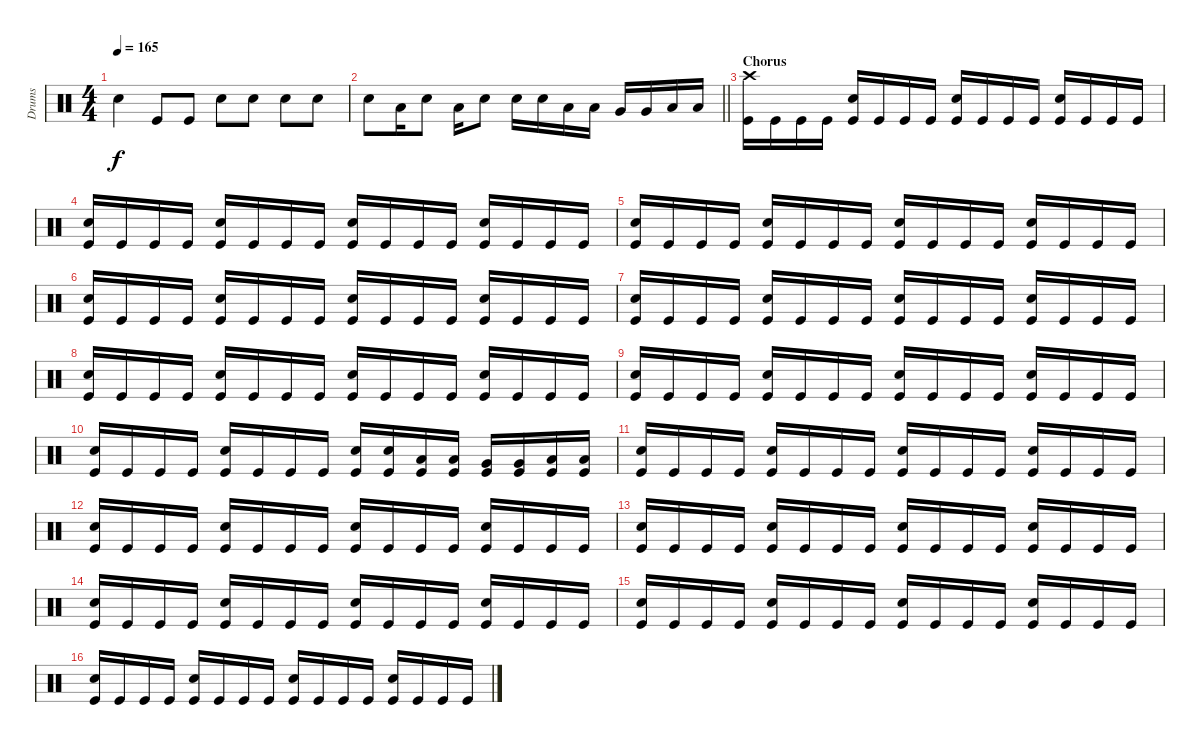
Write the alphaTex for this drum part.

\track ("Drums" "Drums") {instrument percussion}
\staff {score}
\articulation defaults
\ts (4 4)
\tempo 165
\clef neutral
\ks c "Snare (hit) 2".4{dy f} "Kick (hit)".8 "Kick (hit)".8 "Snare (hit) 2".8 "Snare (hit) 2".8 "Snare (hit) 2".8 "Snare (hit) 2".8
|
\barLineRight lightlight "Snare (hit) 2".8 "Low Tom (hit)".16 "Snare (hit) 2".8 "Low Tom (hit)".16 "Snare (hit) 2".8 "Snare (hit) 2".16 "Snare (hit) 2".16 "Low Tom (hit)".16 "Low Tom (hit)".16 "Very Low Tom (hit)".16 "Very Low Tom (hit)".16 "Low Floor Tom (hit)".16 "Low Floor Tom (hit)".16
|
\section ("" "Chorus")
("Kick (hit)" "Crash high (hit)").16 "Kick (hit)".16 "Kick (hit)".16 "Kick (hit)".16 ("Kick (hit)" "Snare (hit) 2").16 "Kick (hit)".16 "Kick (hit)".16 "Kick (hit)".16 ("Kick (hit)" "Snare (hit) 2").16 "Kick (hit)".16 "Kick (hit)".16 "Kick (hit)".16 ("Kick (hit)" "Snare (hit) 2").16 "Kick (hit)".16 "Kick (hit)".16 "Kick (hit)".16 |
("Kick (hit)" "Snare (hit) 2").16 "Kick (hit)".16 "Kick (hit)".16 "Kick (hit)".16 ("Kick (hit)" "Snare (hit) 2").16 "Kick (hit)".16 "Kick (hit)".16 "Kick (hit)".16 ("Kick (hit)" "Snare (hit) 2").16 "Kick (hit)".16 "Kick (hit)".16 "Kick (hit)".16 ("Kick (hit)" "Snare (hit) 2").16 "Kick (hit)".16 "Kick (hit)".16 "Kick (hit)".16 |
("Kick (hit)" "Snare (hit) 2").16 "Kick (hit)".16 "Kick (hit)".16 "Kick (hit)".16 ("Kick (hit)" "Snare (hit) 2").16 "Kick (hit)".16 "Kick (hit)".16 "Kick (hit)".16 ("Kick (hit)" "Snare (hit) 2").16 "Kick (hit)".16 "Kick (hit)".16 "Kick (hit)".16 ("Kick (hit)" "Snare (hit) 2").16 "Kick (hit)".16 "Kick (hit)".16 "Kick (hit)".16 |
("Kick (hit)" "Snare (hit) 2").16 "Kick (hit)".16 "Kick (hit)".16 "Kick (hit)".16 ("Kick (hit)" "Snare (hit) 2").16 "Kick (hit)".16 "Kick (hit)".16 "Kick (hit)".16 ("Kick (hit)" "Snare (hit) 2").16 "Kick (hit)".16 "Kick (hit)".16 "Kick (hit)".16 ("Kick (hit)" "Snare (hit) 2").16 "Kick (hit)".16 "Kick (hit)".16 "Kick (hit)".16 |
("Kick (hit)" "Snare (hit) 2").16 "Kick (hit)".16 "Kick (hit)".16 "Kick (hit)".16 ("Kick (hit)" "Snare (hit) 2").16 "Kick (hit)".16 "Kick (hit)".16 "Kick (hit)".16 ("Kick (hit)" "Snare (hit) 2").16 "Kick (hit)".16 "Kick (hit)".16 "Kick (hit)".16 ("Kick (hit)" "Snare (hit) 2").16 "Kick (hit)".16 "Kick (hit)".16 "Kick (hit)".16 |
("Kick (hit)" "Snare (hit) 2").16 "Kick (hit)".16 "Kick (hit)".16 "Kick (hit)".16 ("Kick (hit)" "Snare (hit) 2").16 "Kick (hit)".16 "Kick (hit)".16 "Kick (hit)".16 ("Kick (hit)" "Snare (hit) 2").16 "Kick (hit)".16 "Kick (hit)".16 "Kick (hit)".16 ("Kick (hit)" "Snare (hit) 2").16 "Kick (hit)".16 "Kick (hit)".16 "Kick (hit)".16 |
("Kick (hit)" "Snare (hit) 2").16 "Kick (hit)".16 "Kick (hit)".16 "Kick (hit)".16 ("Kick (hit)" "Snare (hit) 2").16 "Kick (hit)".16 "Kick (hit)".16 "Kick (hit)".16 ("Kick (hit)" "Snare (hit) 2").16 "Kick (hit)".16 "Kick (hit)".16 "Kick (hit)".16 ("Kick (hit)" "Snare (hit) 2").16 "Kick (hit)".16 "Kick (hit)".16 "Kick (hit)".16 |
("Kick (hit)" "Snare (hit) 2").16 "Kick (hit)".16 "Kick (hit)".16 "Kick (hit)".16 ("Kick (hit)" "Snare (hit) 2").16 "Kick (hit)".16 "Kick (hit)".16 "Kick (hit)".16 ("Kick (hit)" "Snare (hit) 2").16 ("Kick (hit)" "Snare (hit) 2").16 ("Kick (hit)" "Low Tom (hit)").16 ("Kick (hit)" "Low Tom (hit)").16 ("Kick (hit)" "Very Low Tom (hit)").16 ("Kick (hit)" "Very Low Tom (hit)").16 ("Kick (hit)" "Low Floor Tom (hit)").16 ("Kick (hit)" "Low Floor Tom (hit)").16 |
("Kick (hit)" "Snare (hit) 2").16 "Kick (hit)".16 "Kick (hit)".16 "Kick (hit)".16 ("Kick (hit)" "Snare (hit) 2").16 "Kick (hit)".16 "Kick (hit)".16 "Kick (hit)".16 ("Kick (hit)" "Snare (hit) 2").16 "Kick (hit)".16 "Kick (hit)".16 "Kick (hit)".16 ("Kick (hit)" "Snare (hit) 2").16 "Kick (hit)".16 "Kick (hit)".16 "Kick (hit)".16 |
("Kick (hit)" "Snare (hit) 2").16 "Kick (hit)".16 "Kick (hit)".16 "Kick (hit)".16 ("Kick (hit)" "Snare (hit) 2").16 "Kick (hit)".16 "Kick (hit)".16 "Kick (hit)".16 ("Kick (hit)" "Snare (hit) 2").16 "Kick (hit)".16 "Kick (hit)".16 "Kick (hit)".16 ("Kick (hit)" "Snare (hit) 2").16 "Kick (hit)".16 "Kick (hit)".16 "Kick (hit)".16 |
("Kick (hit)" "Snare (hit) 2").16 "Kick (hit)".16 "Kick (hit)".16 "Kick (hit)".16 ("Kick (hit)" "Snare (hit) 2").16 "Kick (hit)".16 "Kick (hit)".16 "Kick (hit)".16 ("Kick (hit)" "Snare (hit) 2").16 "Kick (hit)".16 "Kick (hit)".16 "Kick (hit)".16 ("Kick (hit)" "Snare (hit) 2").16 "Kick (hit)".16 "Kick (hit)".16 "Kick (hit)".16 |
("Kick (hit)" "Snare (hit) 2").16 "Kick (hit)".16 "Kick (hit)".16 "Kick (hit)".16 ("Kick (hit)" "Snare (hit) 2").16 "Kick (hit)".16 "Kick (hit)".16 "Kick (hit)".16 ("Kick (hit)" "Snare (hit) 2").16 "Kick (hit)".16 "Kick (hit)".16 "Kick (hit)".16 ("Kick (hit)" "Snare (hit) 2").16 "Kick (hit)".16 "Kick (hit)".16 "Kick (hit)".16 |
("Kick (hit)" "Snare (hit) 2").16 "Kick (hit)".16 "Kick (hit)".16 "Kick (hit)".16 ("Kick (hit)" "Snare (hit) 2").16 "Kick (hit)".16 "Kick (hit)".16 "Kick (hit)".16 ("Kick (hit)" "Snare (hit) 2").16 "Kick (hit)".16 "Kick (hit)".16 "Kick (hit)".16 ("Kick (hit)" "Snare (hit) 2").16 "Kick (hit)".16 "Kick (hit)".16 "Kick (hit)".16 |
("Kick (hit)" "Snare (hit) 2").16 "Kick (hit)".16 "Kick (hit)".16 "Kick (hit)".16 ("Kick (hit)" "Snare (hit) 2").16 "Kick (hit)".16 "Kick (hit)".16 "Kick (hit)".16 ("Kick (hit)" "Snare (hit) 2").16 "Kick (hit)".16 "Kick (hit)".16 "Kick (hit)".16 ("Kick (hit)" "Snare (hit) 2").16 "Kick (hit)".16 "Kick (hit)".16 "Kick (hit)".16
